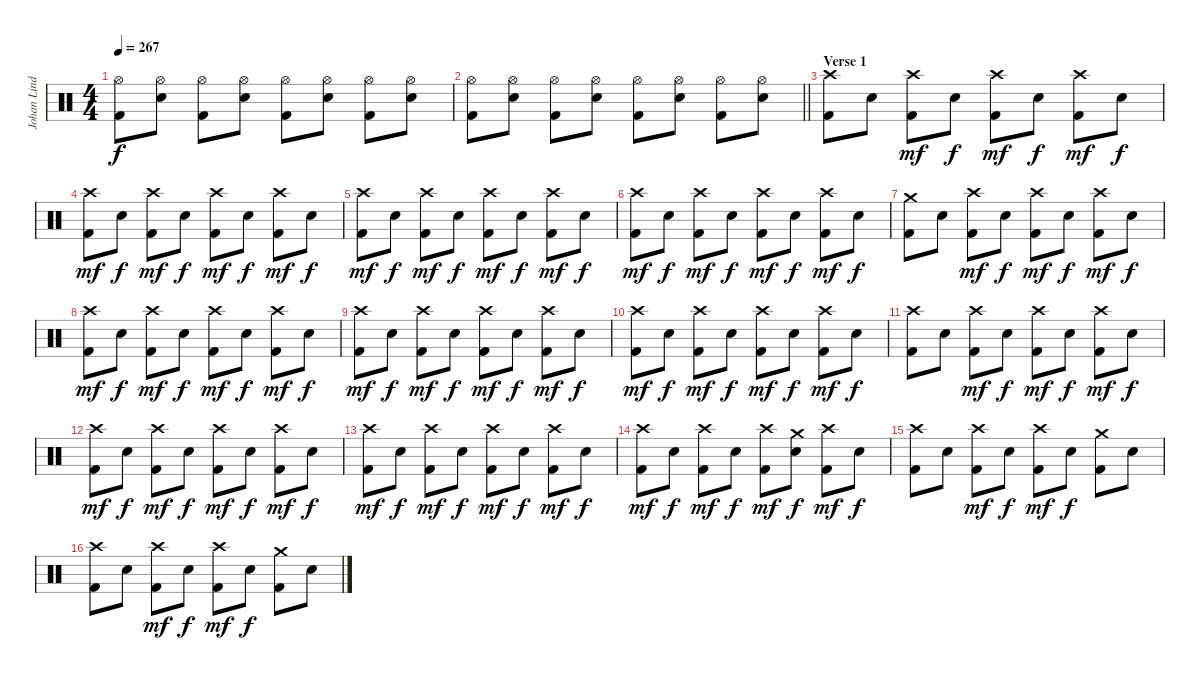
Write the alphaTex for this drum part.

\track ("Johan Lindstrand" "Johan Lind") {instrument percussion}
\staff {score}
\articulation defaults
\ts (4 4)
\tempo 267
\clef neutral
\ks c
("Hi-Hat (open)" "Kick (hit) 2").8{dy f} ("Hi-Hat (open)" "Electric Snare (hit)").8 ("Hi-Hat (open)" "Kick (hit) 2").8 ("Hi-Hat (open)" "Electric Snare (hit)").8 ("Hi-Hat (open)" "Kick (hit) 2").8 ("Hi-Hat (open)" "Electric Snare (hit)").8 ("Hi-Hat (open)" "Kick (hit) 2").8 ("Hi-Hat (open)" "Electric Snare (hit)").8 |
\barLineRight lightlight
("Hi-Hat (open)" "Kick (hit) 2").8 ("Hi-Hat (open)" "Electric Snare (hit)").8 ("Hi-Hat (open)" "Kick (hit) 2").8 ("Hi-Hat (open)" "Electric Snare (hit)").8 ("Hi-Hat (open)" "Kick (hit) 2").8 ("Hi-Hat (open)" "Electric Snare (hit)").8 ("Hi-Hat (open)" "Kick (hit) 2").8 ("Hi-Hat (open)" "Electric Snare (hit)").8 |
\section ("" "Verse 1")
("Crash high (hit)" "Kick (hit) 2").8 "Electric Snare (hit)".8 ("Crash high (hit)" "Kick (hit) 2").8{dy mf} "Electric Snare (hit)".8{dy f} ("Crash high (hit)" "Kick (hit) 2").8{dy mf} "Electric Snare (hit)".8{dy f} ("Crash high (hit)" "Kick (hit) 2").8{dy mf} "Electric Snare (hit)".8{dy f} |
("Crash high (hit)" "Kick (hit) 2").8{dy mf} "Electric Snare (hit)".8{dy f} ("Crash high (hit)" "Kick (hit) 2").8{dy mf} "Electric Snare (hit)".8{dy f} ("Crash high (hit)" "Kick (hit) 2").8{dy mf} "Electric Snare (hit)".8{dy f} ("Crash high (hit)" "Kick (hit) 2").8{dy mf} "Electric Snare (hit)".8{dy f} |
("Crash high (hit)" "Kick (hit) 2").8{dy mf} "Electric Snare (hit)".8{dy f} ("Crash high (hit)" "Kick (hit) 2").8{dy mf} "Electric Snare (hit)".8{dy f} ("Crash high (hit)" "Kick (hit) 2").8{dy mf} "Electric Snare (hit)".8{dy f} ("Crash high (hit)" "Kick (hit) 2").8{dy mf} "Electric Snare (hit)".8{dy f} |
("Crash high (hit)" "Kick (hit) 2").8{dy mf} "Electric Snare (hit)".8{dy f} ("Crash high (hit)" "Kick (hit) 2").8{dy mf} "Electric Snare (hit)".8{dy f} ("Crash high (hit)" "Kick (hit) 2").8{dy mf} "Electric Snare (hit)".8{dy f} ("Crash high (hit)" "Kick (hit) 2").8{dy mf} "Electric Snare (hit)".8{dy f} |
("Crash medium (hit)" "Kick (hit) 2").8 "Electric Snare (hit)".8 ("Crash high (hit)" "Kick (hit) 2").8{dy mf} "Electric Snare (hit)".8{dy f} ("Crash high (hit)" "Kick (hit) 2").8{dy mf} "Electric Snare (hit)".8{dy f} ("Crash high (hit)" "Kick (hit) 2").8{dy mf} "Electric Snare (hit)".8{dy f} |
("Crash high (hit)" "Kick (hit) 2").8{dy mf} "Electric Snare (hit)".8{dy f} ("Crash high (hit)" "Kick (hit) 2").8{dy mf} "Electric Snare (hit)".8{dy f} ("Crash high (hit)" "Kick (hit) 2").8{dy mf} "Electric Snare (hit)".8{dy f} ("Crash high (hit)" "Kick (hit) 2").8{dy mf} "Electric Snare (hit)".8{dy f} |
("Crash high (hit)" "Kick (hit) 2").8{dy mf} "Electric Snare (hit)".8{dy f} ("Crash high (hit)" "Kick (hit) 2").8{dy mf} "Electric Snare (hit)".8{dy f} ("Crash high (hit)" "Kick (hit) 2").8{dy mf} "Electric Snare (hit)".8{dy f} ("Crash high (hit)" "Kick (hit) 2").8{dy mf} "Electric Snare (hit)".8{dy f} |
("Crash high (hit)" "Kick (hit) 2").8{dy mf} "Electric Snare (hit)".8{dy f} ("Crash high (hit)" "Kick (hit) 2").8{dy mf} "Electric Snare (hit)".8{dy f} ("Crash high (hit)" "Kick (hit) 2").8{dy mf} "Electric Snare (hit)".8{dy f} ("Crash high (hit)" "Kick (hit) 2").8{dy mf} "Electric Snare (hit)".8{dy f} |
("Crash high (hit)" "Kick (hit) 2").8 "Electric Snare (hit)".8 ("Crash high (hit)" "Kick (hit) 2").8{dy mf} "Electric Snare (hit)".8{dy f} ("Crash high (hit)" "Kick (hit) 2").8{dy mf} "Electric Snare (hit)".8{dy f} ("Crash high (hit)" "Kick (hit) 2").8{dy mf} "Electric Snare (hit)".8{dy f} |
("Crash high (hit)" "Kick (hit) 2").8{dy mf} "Electric Snare (hit)".8{dy f} ("Crash high (hit)" "Kick (hit) 2").8{dy mf} "Electric Snare (hit)".8{dy f} ("Crash high (hit)" "Kick (hit) 2").8{dy mf} "Electric Snare (hit)".8{dy f} ("Crash high (hit)" "Kick (hit) 2").8{dy mf} "Electric Snare (hit)".8{dy f} |
("Crash high (hit)" "Kick (hit) 2").8{dy mf} "Electric Snare (hit)".8{dy f} ("Crash high (hit)" "Kick (hit) 2").8{dy mf} "Electric Snare (hit)".8{dy f} ("Crash high (hit)" "Kick (hit) 2").8{dy mf} "Electric Snare (hit)".8{dy f} ("Crash high (hit)" "Kick (hit) 2").8{dy mf} "Electric Snare (hit)".8{dy f} |
("Crash high (hit)" "Kick (hit) 2").8{dy mf} "Electric Snare (hit)".8{dy f} ("Crash high (hit)" "Kick (hit) 2").8{dy mf} "Electric Snare (hit)".8{dy f} ("Crash high (hit)" "Kick (hit) 2").8{dy mf} ("Crash medium (hit)" "Electric Snare (hit)").8{dy f} ("Crash high (hit)" "Kick (hit) 2").8{dy mf} "Electric Snare (hit)".8{dy f} |
("Crash high (hit)" "Kick (hit) 2").8 "Electric Snare (hit)".8 ("Crash high (hit)" "Kick (hit) 2").8{dy mf} "Electric Snare (hit)".8{dy f} ("Crash high (hit)" "Kick (hit) 2").8{dy mf} "Electric Snare (hit)".8{dy f} ("Crash medium (hit)" "Kick (hit) 2").8 "Electric Snare (hit)".8 |
("Crash high (hit)" "Kick (hit) 2").8 "Electric Snare (hit)".8 ("Crash high (hit)" "Kick (hit) 2").8{dy mf} "Electric Snare (hit)".8{dy f} ("Crash high (hit)" "Kick (hit) 2").8{dy mf} "Electric Snare (hit)".8{dy f} ("Crash medium (hit)" "Kick (hit) 2").8 "Electric Snare (hit)".8
